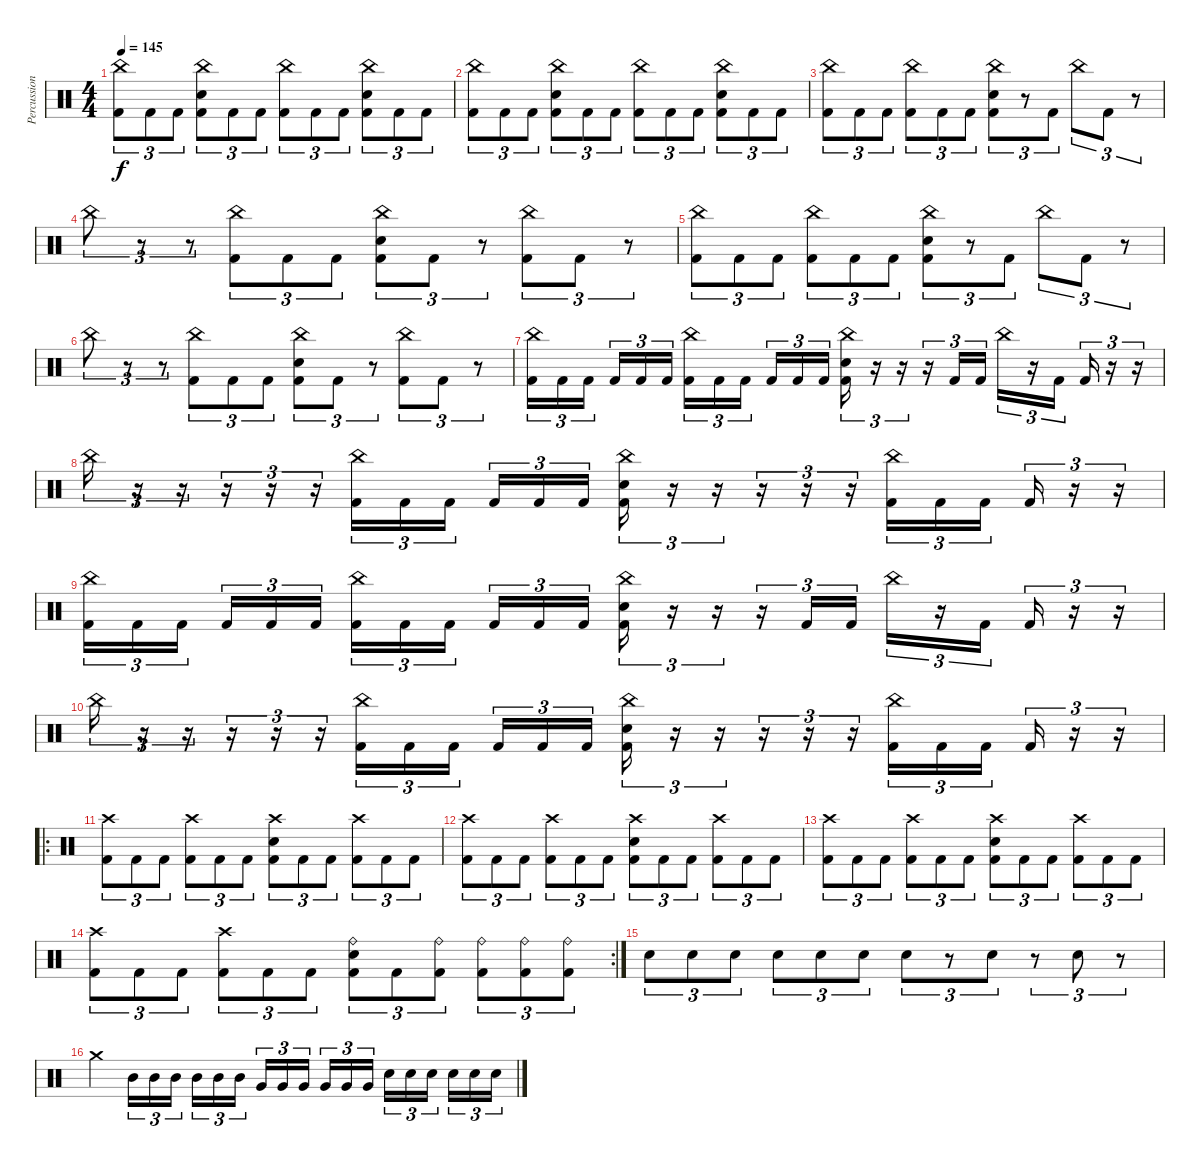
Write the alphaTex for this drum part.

\track ("Percussion" "Percussion") {instrument percussion}
\staff {score}
\articulation defaults
\ts (4 4)
\tempo 145
\clef neutral
\ks c
("China (hit)" "Kick (hit) 2").8{tu (3 2) dy f} "Kick (hit) 2".8{tu (3 2)} "Kick (hit) 2".8{tu (3 2)} ("China (hit)" "Electric Snare (hit)" "Kick (hit) 2").8{tu (3 2)} "Kick (hit) 2".8{tu (3 2)} "Kick (hit) 2".8{tu (3 2)} ("China (hit)" "Kick (hit) 2").8{tu (3 2)} "Kick (hit) 2".8{tu (3 2)} "Kick (hit) 2".8{tu (3 2)} ("China (hit)" "Electric Snare (hit)" "Kick (hit) 2").8{tu (3 2)} "Kick (hit) 2".8{tu (3 2)} "Kick (hit) 2".8{tu (3 2)} |
("China (hit)" "Kick (hit) 2").8{tu (3 2)} "Kick (hit) 2".8{tu (3 2)} "Kick (hit) 2".8{tu (3 2)} ("China (hit)" "Electric Snare (hit)" "Kick (hit) 2").8{tu (3 2)} "Kick (hit) 2".8{tu (3 2)} "Kick (hit) 2".8{tu (3 2)} ("China (hit)" "Kick (hit) 2").8{tu (3 2)} "Kick (hit) 2".8{tu (3 2)} "Kick (hit) 2".8{tu (3 2)} ("China (hit)" "Electric Snare (hit)" "Kick (hit) 2").8{tu (3 2)} "Kick (hit) 2".8{tu (3 2)} "Kick (hit) 2".8{tu (3 2)} |
("China (hit)" "Kick (hit) 2").8{tu (3 2)} "Kick (hit) 2".8{tu (3 2)} "Kick (hit) 2".8{tu (3 2)} ("China (hit)" "Kick (hit) 2").8{tu (3 2)} "Kick (hit) 2".8{tu (3 2)} "Kick (hit) 2".8{tu (3 2)} ("China (hit)" "Electric Snare (hit)" "Kick (hit) 2").8{tu (3 2)} r.8{tu (3 2)} "Kick (hit) 2".8{tu (3 2)} "China (hit)".8{tu (3 2)} "Kick (hit) 2".8{tu (3 2)} r.8{tu (3 2)} |
"China (hit)".8{tu (3 2)} r.8{tu (3 2)} r.8{tu (3 2)} ("China (hit)" "Kick (hit) 2").8{tu (3 2)} "Kick (hit) 2".8{tu (3 2)} "Kick (hit) 2".8{tu (3 2)} ("China (hit)" "Electric Snare (hit)" "Kick (hit) 2").8{tu (3 2)} "Kick (hit) 2".8{tu (3 2)} r.8{tu (3 2)} ("China (hit)" "Kick (hit) 2").8{tu (3 2)} "Kick (hit) 2".8{tu (3 2)} r.8{tu (3 2)} |
("China (hit)" "Kick (hit) 2").8{tu (3 2)} "Kick (hit) 2".8{tu (3 2)} "Kick (hit) 2".8{tu (3 2)} ("China (hit)" "Kick (hit) 2").8{tu (3 2)} "Kick (hit) 2".8{tu (3 2)} "Kick (hit) 2".8{tu (3 2)} ("China (hit)" "Electric Snare (hit)" "Kick (hit) 2").8{tu (3 2)} r.8{tu (3 2)} "Kick (hit) 2".8{tu (3 2)} "China (hit)".8{tu (3 2)} "Kick (hit) 2".8{tu (3 2)} r.8{tu (3 2)} |
"China (hit)".8{tu (3 2)} r.8{tu (3 2)} r.8{tu (3 2)} ("China (hit)" "Kick (hit) 2").8{tu (3 2)} "Kick (hit) 2".8{tu (3 2)} "Kick (hit) 2".8{tu (3 2)} ("China (hit)" "Electric Snare (hit)" "Kick (hit) 2").8{tu (3 2)} "Kick (hit) 2".8{tu (3 2)} r.8{tu (3 2)} ("China (hit)" "Kick (hit) 2").8{tu (3 2)} "Kick (hit) 2".8{tu (3 2)} r.8{tu (3 2)} |
("China (hit)" "Kick (hit) 2").16{tu (3 2)} "Kick (hit) 2".16{tu (3 2)} "Kick (hit) 2".16{tu (3 2) beam splitsecondary} "Kick (hit) 2".16{tu (3 2)} "Kick (hit) 2".16{tu (3 2)} "Kick (hit) 2".16{tu (3 2)} ("China (hit)" "Kick (hit) 2").16{tu (3 2)} "Kick (hit) 2".16{tu (3 2)} "Kick (hit) 2".16{tu (3 2) beam splitsecondary} "Kick (hit) 2".16{tu (3 2)} "Kick (hit) 2".16{tu (3 2)} "Kick (hit) 2".16{tu (3 2)} ("China (hit)" "Electric Snare (hit)" "Kick (hit) 2").16{tu (3 2)} r.16{tu (3 2)} r.16{tu (3 2)} r.16{tu (3 2)} "Kick (hit) 2".16{tu (3 2)} "Kick (hit) 2".16{tu (3 2)} "China (hit)".16{tu (3 2)} r.16{tu (3 2)} "Kick (hit) 2".16{tu (3 2)} "Kick (hit) 2".16{tu (3 2)} r.16{tu (3 2)} r.16{tu (3 2)} |
"China (hit)".16{tu (3 2)} r.16{tu (3 2)} r.16{tu (3 2)} r.16{tu (3 2)} r.16{tu (3 2)} r.16{tu (3 2)} ("China (hit)" "Kick (hit) 2").16{tu (3 2)} "Kick (hit) 2".16{tu (3 2)} "Kick (hit) 2".16{tu (3 2) beam splitsecondary} "Kick (hit) 2".16{tu (3 2)} "Kick (hit) 2".16{tu (3 2)} "Kick (hit) 2".16{tu (3 2)} ("China (hit)" "Electric Snare (hit)" "Kick (hit) 2").16{tu (3 2)} r.16{tu (3 2)} r.16{tu (3 2)} r.16{tu (3 2)} r.16{tu (3 2)} r.16{tu (3 2)} ("China (hit)" "Kick (hit) 2").16{tu (3 2)} "Kick (hit) 2".16{tu (3 2)} "Kick (hit) 2".16{tu (3 2) beam splitsecondary} "Kick (hit) 2".16{tu (3 2)} r.16{tu (3 2)} r.16{tu (3 2)} |
("China (hit)" "Kick (hit) 2").16{tu (3 2)} "Kick (hit) 2".16{tu (3 2)} "Kick (hit) 2".16{tu (3 2) beam splitsecondary} "Kick (hit) 2".16{tu (3 2)} "Kick (hit) 2".16{tu (3 2)} "Kick (hit) 2".16{tu (3 2)} ("China (hit)" "Kick (hit) 2").16{tu (3 2)} "Kick (hit) 2".16{tu (3 2)} "Kick (hit) 2".16{tu (3 2) beam splitsecondary} "Kick (hit) 2".16{tu (3 2)} "Kick (hit) 2".16{tu (3 2)} "Kick (hit) 2".16{tu (3 2)} ("China (hit)" "Electric Snare (hit)" "Kick (hit) 2").16{tu (3 2)} r.16{tu (3 2)} r.16{tu (3 2)} r.16{tu (3 2)} "Kick (hit) 2".16{tu (3 2)} "Kick (hit) 2".16{tu (3 2)} "China (hit)".16{tu (3 2)} r.16{tu (3 2)} "Kick (hit) 2".16{tu (3 2)} "Kick (hit) 2".16{tu (3 2)} r.16{tu (3 2)} r.16{tu (3 2)} |
"China (hit)".16{tu (3 2)} r.16{tu (3 2)} r.16{tu (3 2)} r.16{tu (3 2)} r.16{tu (3 2)} r.16{tu (3 2)} ("China (hit)" "Kick (hit) 2").16{tu (3 2)} "Kick (hit) 2".16{tu (3 2)} "Kick (hit) 2".16{tu (3 2) beam splitsecondary} "Kick (hit) 2".16{tu (3 2)} "Kick (hit) 2".16{tu (3 2)} "Kick (hit) 2".16{tu (3 2)} ("China (hit)" "Electric Snare (hit)" "Kick (hit) 2").16{tu (3 2)} r.16{tu (3 2)} r.16{tu (3 2)} r.16{tu (3 2)} r.16{tu (3 2)} r.16{tu (3 2)} ("China (hit)" "Kick (hit) 2").16{tu (3 2)} "Kick (hit) 2".16{tu (3 2)} "Kick (hit) 2".16{tu (3 2) beam splitsecondary} "Kick (hit) 2".16{tu (3 2)} r.16{tu (3 2)} r.16{tu (3 2)} |
\ro
("Kick (hit) 2" "Crash high (hit)").8{tu (3 2)} "Kick (hit) 2".8{tu (3 2)} "Kick (hit) 2".8{tu (3 2)} ("Kick (hit) 2" "Crash high (hit)").8{tu (3 2)} "Kick (hit) 2".8{tu (3 2)} "Kick (hit) 2".8{tu (3 2)} ("Kick (hit) 2" "Electric Snare (hit)" "Crash high (hit)").8{tu (3 2)} "Kick (hit) 2".8{tu (3 2)} "Kick (hit) 2".8{tu (3 2)} ("Kick (hit) 2" "Crash high (hit)").8{tu (3 2)} "Kick (hit) 2".8{tu (3 2)} "Kick (hit) 2".8{tu (3 2)} |
("Kick (hit) 2" "Crash high (hit)").8{tu (3 2)} "Kick (hit) 2".8{tu (3 2)} "Kick (hit) 2".8{tu (3 2)} ("Kick (hit) 2" "Crash high (hit)").8{tu (3 2)} "Kick (hit) 2".8{tu (3 2)} "Kick (hit) 2".8{tu (3 2)} ("Kick (hit) 2" "Electric Snare (hit)" "Crash high (hit)").8{tu (3 2)} "Kick (hit) 2".8{tu (3 2)} "Kick (hit) 2".8{tu (3 2)} ("Kick (hit) 2" "Crash high (hit)").8{tu (3 2)} "Kick (hit) 2".8{tu (3 2)} "Kick (hit) 2".8{tu (3 2)} |
("Kick (hit) 2" "Crash high (hit)").8{tu (3 2)} "Kick (hit) 2".8{tu (3 2)} "Kick (hit) 2".8{tu (3 2)} ("Kick (hit) 2" "Crash high (hit)").8{tu (3 2)} "Kick (hit) 2".8{tu (3 2)} "Kick (hit) 2".8{tu (3 2)} ("Kick (hit) 2" "Electric Snare (hit)" "Crash high (hit)").8{tu (3 2)} "Kick (hit) 2".8{tu (3 2)} "Kick (hit) 2".8{tu (3 2)} ("Kick (hit) 2" "Crash high (hit)").8{tu (3 2)} "Kick (hit) 2".8{tu (3 2)} "Kick (hit) 2".8{tu (3 2)} |
\rc 2
("Kick (hit) 2" "Crash high (hit)").8{tu (3 2)} "Kick (hit) 2".8{tu (3 2)} "Kick (hit) 2".8{tu (3 2)} ("Kick (hit) 2" "Crash high (hit)").8{tu (3 2)} "Kick (hit) 2".8{tu (3 2)} "Kick (hit) 2".8{tu (3 2)} ("Kick (hit) 2" "Electric Snare (hit)" "Ride (bell)").8{tu (3 2)} "Kick (hit) 2".8{tu (3 2)} ("Kick (hit) 2" "Ride (bell)").8{tu (3 2)} ("Kick (hit) 2" "Ride (bell)").8{tu (3 2)} ("Kick (hit) 2" "Ride (bell)").8{tu (3 2)} ("Kick (hit) 2" "Ride (bell)").8{tu (3 2)} |
"Electric Snare (hit)".8{tu (3 2)} "Electric Snare (hit)".8{tu (3 2)} "Electric Snare (hit)".8{tu (3 2)} "Electric Snare (hit)".8{tu (3 2)} "Electric Snare (hit)".8{tu (3 2)} "Electric Snare (hit)".8{tu (3 2)} "Electric Snare (hit)".8{tu (3 2)} r.8{tu (3 2)} "Electric Snare (hit)".8{tu (3 2)} r.8{tu (3 2)} "Electric Snare (hit)".8{tu (3 2)} r.8{tu (3 2)} |
"Crash medium (hit)".4 "Mid Tom (hit)".16{tu (3 2)} "Mid Tom (hit)".16{tu (3 2)} "Mid Tom (hit)".16{tu (3 2) beam splitsecondary} "Mid Tom (hit)".16{tu (3 2)} "Mid Tom (hit)".16{tu (3 2)} "Mid Tom (hit)".16{tu (3 2)} "Very Low Tom (hit)".16{tu (3 2)} "Very Low Tom (hit)".16{tu (3 2)} "Very Low Tom (hit)".16{tu (3 2) beam splitsecondary} "Very Low Tom (hit)".16{tu (3 2)} "Very Low Tom (hit)".16{tu (3 2)} "Very Low Tom (hit)".16{tu (3 2)} "Electric Snare (hit)".16{tu (3 2)} "Electric Snare (hit)".16{tu (3 2)} "Electric Snare (hit)".16{tu (3 2) beam splitsecondary} "Electric Snare (hit)".16{tu (3 2)} "Electric Snare (hit)".16{tu (3 2)} "Electric Snare (hit)".16{tu (3 2)}
